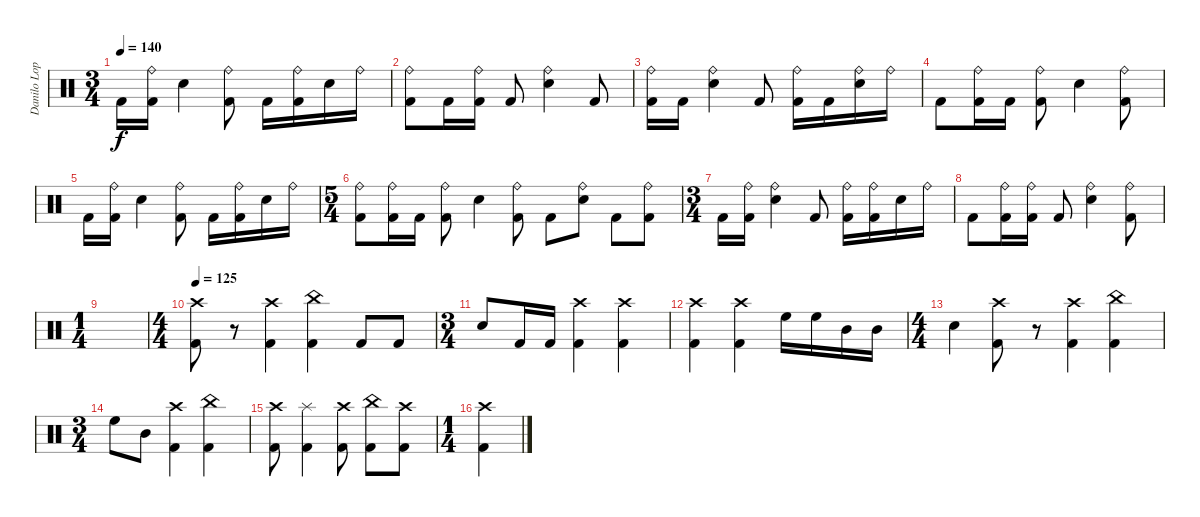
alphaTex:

\track ("Danilo Lopes" "Danilo Lop") {instrument percussion}
\staff {score}
\articulation defaults
\ts (3 4)
\tempo 140
\clef neutral
\ks c "Kick (hit) 2".16{dy f}
("Ride (bell)" "Kick (hit) 2").16 "Snare (hit) 2".4 ("Ride (bell)" "Kick (hit) 2").8 "Kick (hit) 2".16 ("Ride (bell)" "Kick (hit) 2").16 "Snare (hit) 2".16 "Ride (bell)".16 |
("Ride (bell)" "Kick (hit) 2").8 "Kick (hit) 2".16 ("Ride (bell)" "Kick (hit) 2").16 "Kick (hit) 2".8 ("Ride (bell)" "Snare (hit) 2").4 "Kick (hit) 2".8 |
("Ride (bell)" "Kick (hit) 2").16 "Kick (hit) 2".16 ("Ride (bell)" "Snare (hit) 2").4 "Kick (hit) 2".8 ("Ride (bell)" "Kick (hit) 2").16 "Kick (hit) 2".16 ("Ride (bell)" "Snare (hit) 2").16 "Ride (bell)".16 |
"Kick (hit) 2".8 ("Ride (bell)" "Kick (hit) 2").16 "Kick (hit) 2".16 ("Ride (bell)" "Kick (hit) 2").8 "Snare (hit) 2".4 ("Ride (bell)" "Kick (hit) 2").8 |
"Kick (hit) 2".16 ("Ride (bell)" "Kick (hit) 2").16 "Snare (hit) 2".4 ("Ride (bell)" "Kick (hit) 2").8 "Kick (hit) 2".16 ("Ride (bell)" "Kick (hit) 2").16 "Snare (hit) 2".16 "Ride (bell)".16 |
\ts (5 4)
("Ride (bell)" "Kick (hit) 2").8 ("Ride (bell)" "Kick (hit) 2").16 "Kick (hit) 2".16 ("Ride (bell)" "Kick (hit) 2").8 "Snare (hit) 2".4 ("Ride (bell)" "Kick (hit) 2").8 "Kick (hit) 2".8 ("Ride (bell)" "Snare (hit) 2").8 "Kick (hit) 2".8 ("Ride (bell)" "Kick (hit) 2").8 |
\ts (3 4)
"Kick (hit) 2".16 ("Ride (bell)" "Kick (hit) 2").16 ("Ride (bell)" "Snare (hit) 2").4 "Kick (hit) 2".8 ("Ride (bell)" "Kick (hit) 2").16 ("Ride (bell)" "Kick (hit) 2").16 "Snare (hit) 2".16 "Ride (bell)".16 |
"Kick (hit) 2".8 ("Ride (bell)" "Kick (hit) 2").16 ("Ride (bell)" "Kick (hit) 2").16 "Kick (hit) 2".8 ("Ride (bell)" "Snare (hit) 2").4 ("Ride (bell)" "Kick (hit) 2").8 |
\ts (1 4)
|
\ts (4 4)
\tempo 125
("Crash high (hit)" "Kick (hit) 2").8 r.8 ("Crash high (hit)" "Kick (hit) 2").4 ("China (hit)" "Kick (hit) 2").4 "Kick (hit) 2".8 "Kick (hit) 2".8 |
\ts (3 4)
"Snare (hit) 2".8 "Kick (hit) 2".16 "Kick (hit) 2".16 ("Crash high (hit)" "Kick (hit) 2").4 ("Kick (hit) 2" "Crash high (hit)").4 |
("Kick (hit) 2" "Crash high (hit)").4 ("Kick (hit) 2" "Crash high (hit)").4 "High Floor Tom (hit)".16 "High Floor Tom (hit)".16 "Mid Tom (hit)".16 "Mid Tom (hit)".16 |
\ts (4 4)
"Snare (hit) 2".4 ("Kick (hit) 2" "Crash high (hit)").8 r.8 ("Kick (hit) 2" "Crash high (hit)").4 ("China (hit)" "Kick (hit) 2").4 |
\ts (3 4)
"High Floor Tom (hit)".8 "Mid Tom (hit)".8 ("Kick (hit) 2" "Crash high (hit)").4 ("Kick (hit) 2" "China (hit)").4 |
("Crash high (hit)" "Kick (hit) 2").8 ("Splash (hit)" "Kick (hit) 2").4 ("Crash high (hit)" "Kick (hit) 2").8 ("China (hit)" "Kick (hit) 2").8 ("Crash high (hit)" "Kick (hit) 2").8 |
\ts (1 4)
("Crash high (hit)" "Kick (hit) 2").4
